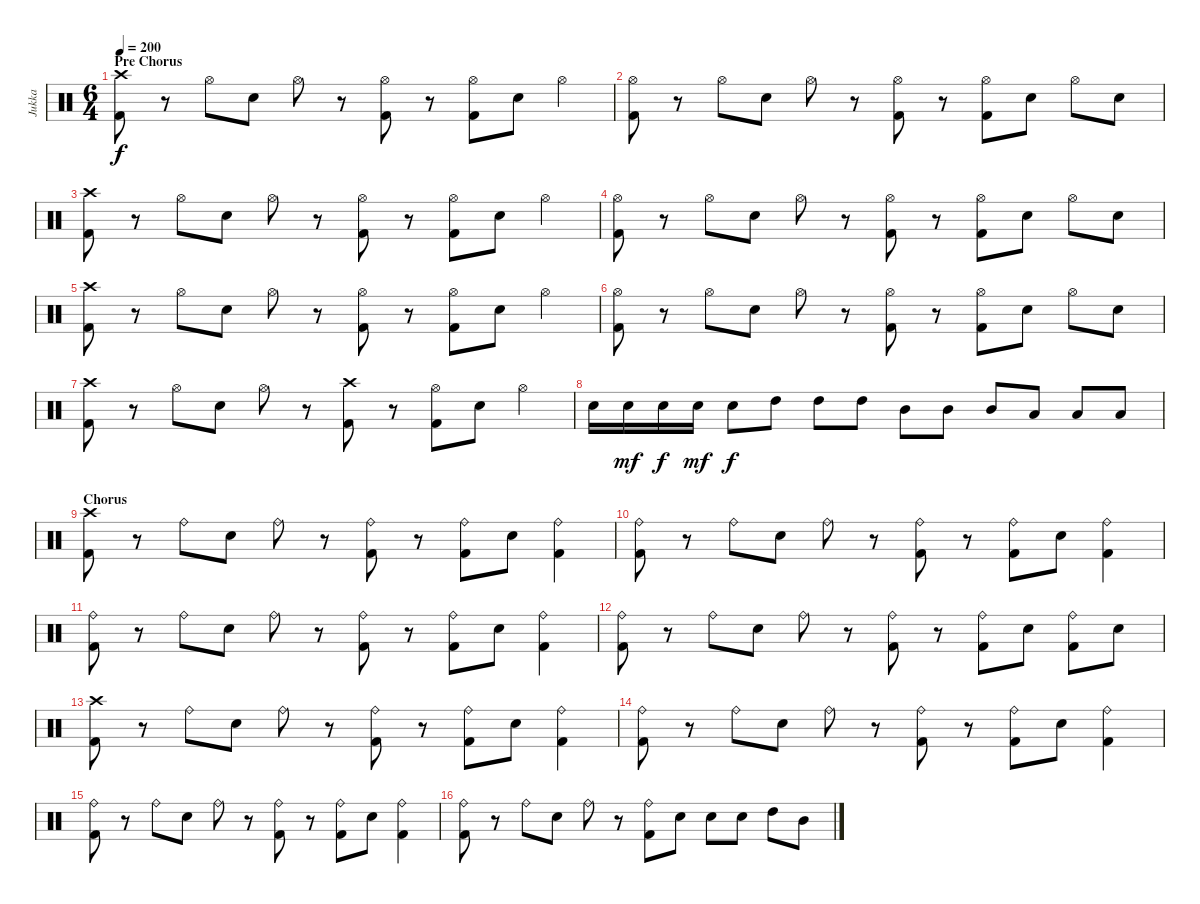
\track ("Jukka" "Jukka") {instrument percussion}
\staff {score}
\articulation defaults
\ts (6 4)
\section ("" "Pre Chorus")
\tempo 200
\clef neutral
\ks c
("Crash high (hit)" "Kick (hit) 2").8{dy f} r.8 "Hi-Hat (open)".8 "Snare (hit) 2".8 "Hi-Hat (open)".8 r.8 ("Hi-Hat (open)" "Kick (hit) 2").8 r.8 ("Hi-Hat (open)" "Kick (hit) 2").8 "Snare (hit) 2".8 "Hi-Hat (open)".4 |
("Hi-Hat (open)" "Kick (hit) 2").8 r.8 "Hi-Hat (open)".8 "Snare (hit) 2".8 "Hi-Hat (open)".8 r.8 ("Hi-Hat (open)" "Kick (hit) 2").8 r.8 ("Hi-Hat (open)" "Kick (hit) 2").8 "Snare (hit) 2".8 "Hi-Hat (open)".8 "Snare (hit) 2".8 |
("Crash high (hit)" "Kick (hit) 2").8 r.8 "Hi-Hat (open)".8 "Snare (hit) 2".8 "Hi-Hat (open)".8 r.8 ("Hi-Hat (open)" "Kick (hit) 2").8 r.8 ("Hi-Hat (open)" "Kick (hit) 2").8 "Snare (hit) 2".8 "Hi-Hat (open)".4 |
("Hi-Hat (open)" "Kick (hit) 2").8 r.8 "Hi-Hat (open)".8 "Snare (hit) 2".8 "Hi-Hat (open)".8 r.8 ("Hi-Hat (open)" "Kick (hit) 2").8 r.8 ("Hi-Hat (open)" "Kick (hit) 2").8 "Snare (hit) 2".8 "Hi-Hat (open)".8 "Snare (hit) 2".8 |
("Crash high (hit)" "Kick (hit) 2").8 r.8 "Hi-Hat (open)".8 "Snare (hit) 2".8 "Hi-Hat (open)".8 r.8 ("Hi-Hat (open)" "Kick (hit) 2").8 r.8 ("Hi-Hat (open)" "Kick (hit) 2").8 "Snare (hit) 2".8 "Hi-Hat (open)".4 |
("Hi-Hat (open)" "Kick (hit) 2").8 r.8 "Hi-Hat (open)".8 "Snare (hit) 2".8 "Hi-Hat (open)".8 r.8 ("Hi-Hat (open)" "Kick (hit) 2").8 r.8 ("Hi-Hat (open)" "Kick (hit) 2").8 "Snare (hit) 2".8 "Hi-Hat (open)".8 "Snare (hit) 2".8 |
("Crash high (hit)" "Kick (hit) 2").8 r.8 "Hi-Hat (open)".8 "Snare (hit) 2".8 "Hi-Hat (open)".8 r.8 ("Crash high (hit)" "Kick (hit) 2").8 r.8 ("Hi-Hat (open)" "Kick (hit) 2").8 "Snare (hit) 2".8 "Hi-Hat (open)".4 |
\section ("" "")
"Snare (hit) 2".16 "Snare (hit) 2".16{dy mf} "Snare (hit) 2".16{dy f} "Snare (hit) 2".16{dy mf} "Snare (hit) 2".8{dy f} "High Tom (hit)".8 "High Tom (hit)".8 "High Tom (hit)".8 "Mid Tom (hit)".8 "Mid Tom (hit)".8 "Mid Tom (hit)".8 "Low Tom (hit)".8 "Low Tom (hit)".8 "Low Tom (hit)".8 |
\section ("" "Chorus")
("Crash high (hit)" "Kick (hit) 2").8 r.8 "Ride (bell)".8 "Snare (hit) 2".8 "Ride (bell)".8 r.8 ("Ride (bell)" "Kick (hit) 2").8 r.8 ("Ride (bell)" "Kick (hit) 2").8 "Snare (hit) 2".8 ("Ride (bell)" "Kick (hit) 2").4 |
("Ride (bell)" "Kick (hit) 2").8 r.8 "Ride (bell)".8 "Snare (hit) 2".8 "Ride (bell)".8 r.8 ("Ride (bell)" "Kick (hit) 2").8 r.8 ("Ride (bell)" "Kick (hit) 2").8 "Snare (hit) 2".8 ("Ride (bell)" "Kick (hit) 2").4 |
("Ride (bell)" "Kick (hit) 2").8 r.8 "Ride (bell)".8 "Snare (hit) 2".8 "Ride (bell)".8 r.8 ("Ride (bell)" "Kick (hit) 2").8 r.8 ("Ride (bell)" "Kick (hit) 2").8 "Snare (hit) 2".8 ("Ride (bell)" "Kick (hit) 2").4 |
("Ride (bell)" "Kick (hit) 2").8 r.8 "Ride (bell)".8 "Snare (hit) 2".8 "Ride (bell)".8 r.8 ("Ride (bell)" "Kick (hit) 2").8 r.8 ("Ride (bell)" "Kick (hit) 2").8 "Snare (hit) 2".8 ("Ride (bell)" "Kick (hit) 2").8 "Snare (hit) 2".8 |
("Crash high (hit)" "Kick (hit) 2").8 r.8 "Ride (bell)".8 "Snare (hit) 2".8 "Ride (bell)".8 r.8 ("Ride (bell)" "Kick (hit) 2").8 r.8 ("Ride (bell)" "Kick (hit) 2").8 "Snare (hit) 2".8 ("Ride (bell)" "Kick (hit) 2").4 |
("Ride (bell)" "Kick (hit) 2").8 r.8 "Ride (bell)".8 "Snare (hit) 2".8 "Ride (bell)".8 r.8 ("Ride (bell)" "Kick (hit) 2").8 r.8 ("Ride (bell)" "Kick (hit) 2").8 "Snare (hit) 2".8 ("Ride (bell)" "Kick (hit) 2").4 |
("Ride (bell)" "Kick (hit) 2").8 r.8 "Ride (bell)".8 "Snare (hit) 2".8 "Ride (bell)".8 r.8 ("Ride (bell)" "Kick (hit) 2").8 r.8 ("Ride (bell)" "Kick (hit) 2").8 "Snare (hit) 2".8 ("Ride (bell)" "Kick (hit) 2").4 |
("Ride (bell)" "Kick (hit) 2").8 r.8 "Ride (bell)".8 "Snare (hit) 2".8 "Ride (bell)".8 r.8 ("Ride (bell)" "Kick (hit) 2").8 "Snare (hit) 2".8 "Snare (hit) 2".8 "Snare (hit) 2".8 "High Tom (hit)".8 "Mid Tom (hit)".8
